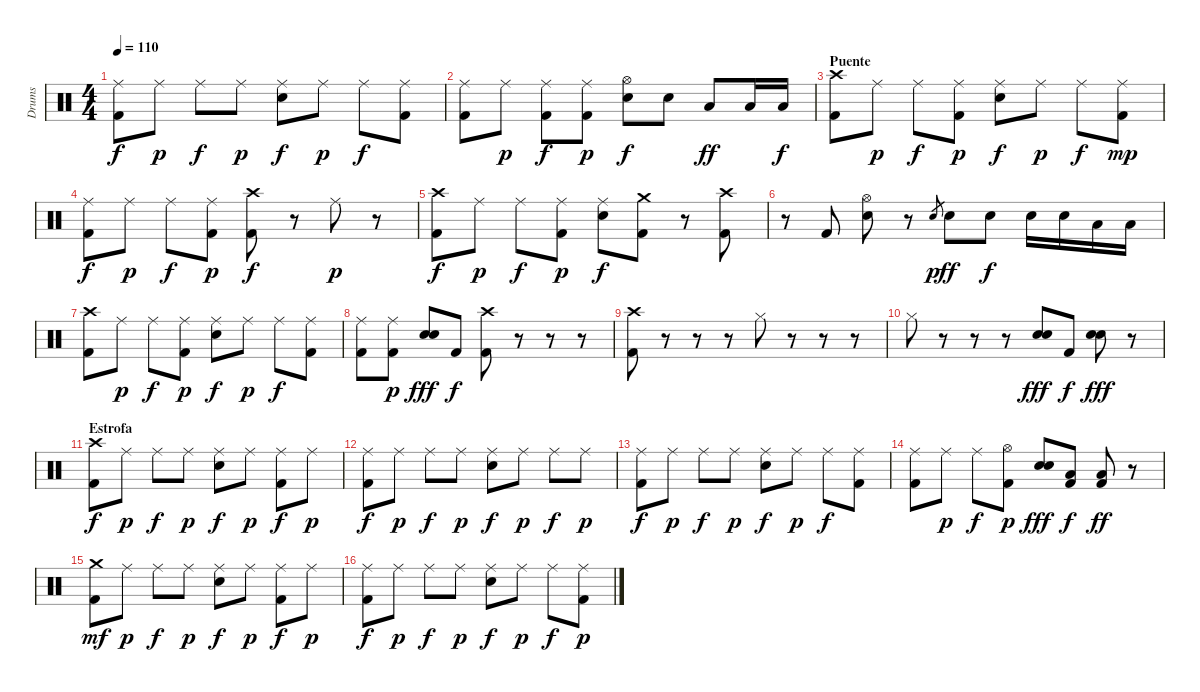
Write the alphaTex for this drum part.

\track ("Drums" "Drums") {instrument percussion}
\staff {score}
\articulation defaults
\ts (4 4)
\tempo 110
\clef neutral
\ks c
("Ride (middle)" "Kick (hit) 2").8{dy f} "Ride (middle)".8{dy p} "Ride (middle)".8{dy f} "Ride (middle)".8{dy p} ("Ride (middle)" "Snare (hit) 2").8{dy f} "Ride (middle)".8{dy p} "Ride (middle)".8{dy f} ("Ride (middle)" "Kick (hit) 2").8 |
("Ride (middle)" "Kick (hit) 2").8 "Ride (middle)".8{dy p} ("Ride (middle)" "Kick (hit) 2").8{dy f} ("Ride (middle)" "Kick (hit) 2").8{dy p} ("Hi-Hat (open)" "Snare (hit) 2").8{dy f} "Snare (hit) 2".8 "Low Floor Tom (hit)".8{dy ff} "Low Floor Tom (hit)".16 "Low Floor Tom (hit)".16{dy f} |
\section ("" "Puente")
("Crash high (hit)" "Kick (hit) 2").8 "Ride (middle)".8{dy p} "Ride (middle)".8{dy f} ("Ride (middle)" "Kick (hit) 2").8{dy p} ("Ride (middle)" "Snare (hit) 2").8{dy f} "Ride (middle)".8{dy p} "Ride (middle)".8{dy f} ("Ride (middle)" "Kick (hit) 2").8{dy mp} |
("Ride (middle)" "Kick (hit) 2").8{dy f} "Ride (middle)".8{dy p} "Ride (middle)".8{dy f} ("Ride (middle)" "Kick (hit) 2").8{dy p} ("Crash high (hit)" "Kick (hit) 2").8{dy f} r.8 "Ride (middle)".8{dy p} r.8 |
("Crash high (hit)" "Kick (hit) 2").8{dy f} "Ride (middle)".8{dy p} "Ride (middle)".8{dy f} ("Ride (middle)" "Kick (hit) 2").8{dy p} ("Ride (middle)" "Snare (hit) 2").8{dy f} ("Crash medium (hit)" "Kick (hit) 2").8 r.8 ("Crash high (hit)" "Kick (hit) 2").8 |
r.8 "Kick (hit) 2".8 ("Hi-Hat (open)" "Snare (hit) 2").8 r.8 "Snare (hit) 2".8{gr dy p} "Snare (hit) 2".8{dy ff} "Snare (hit) 2".8{dy f} "Snare (hit) 2".16 "Snare (hit) 2".16 "Low Floor Tom (hit)".16 "Low Floor Tom (hit)".16 |
("Crash high (hit)" "Kick (hit) 2").8 "Ride (middle)".8{dy p} "Ride (middle)".8{dy f} ("Ride (middle)" "Kick (hit) 2").8{dy p} ("Ride (middle)" "Snare (hit) 2").8{dy f} "Ride (middle)".8{dy p} "Ride (middle)".8{dy f} ("Ride (middle)" "Kick (hit) 2").8 |
("Ride (middle)" "Kick (hit) 2").8 ("Ride (middle)" "Kick (hit) 2").8{dy p} ("Snare (hit) 2" "Snare (hit) 2").8{bd 60 dy fff} "Kick (hit) 2".8{dy f} ("Crash high (hit)" "Kick (hit) 2").8 r.8 r.8 r.8 |
("Crash high (hit)" "Kick (hit) 2").8 r.8 r.8 r.8 "Hi-Hat (closed)".8 r.8 r.8 r.8 |
"Hi-Hat (closed)".8 r.8 r.8 r.8 ("Snare (hit) 2" "Snare (hit) 2").8{bd 60 dy fff} "Kick (hit) 2".8{dy f} ("Snare (hit) 2" "Snare (hit) 2").8{bd 60 dy fff} r.8 |
\section ("" "Estrofa")
("Crash high (hit)" "Kick (hit) 2").8{dy f} "Ride (middle)".8{dy p} "Ride (middle)".8{dy f} "Ride (middle)".8{dy p} ("Ride (middle)" "Snare (hit) 2").8{dy f} "Ride (middle)".8{dy p} ("Ride (middle)" "Kick (hit) 2").8{dy f} "Ride (middle)".8{dy p} |
("Ride (middle)" "Kick (hit) 2").8{dy f} "Ride (middle)".8{dy p} "Ride (middle)".8{dy f} "Ride (middle)".8{dy p} ("Ride (middle)" "Snare (hit) 2").8{dy f} "Ride (middle)".8{dy p} "Ride (middle)".8{dy f} "Ride (middle)".8{dy p} |
("Ride (middle)" "Kick (hit) 2").8{dy f} "Ride (middle)".8{dy p} "Ride (middle)".8{dy f} "Ride (middle)".8{dy p} ("Ride (middle)" "Snare (hit) 2").8{dy f} "Ride (middle)".8{dy p} "Ride (middle)".8{dy f} ("Ride (middle)" "Kick (hit) 2").8 |
("Ride (middle)" "Kick (hit) 2").8 "Ride (middle)".8{dy p} "Ride (middle)".8{dy f} ("Hi-Hat (open)" "Kick (hit) 2").8{dy p} ("Snare (hit) 2" "Snare (hit) 2").8{bd 60 dy fff} ("Low Floor Tom (hit)" "Kick (hit) 2").8{dy f} ("Low Floor Tom (hit)" "Kick (hit) 2").8{dy ff} r.8 |
("Crash medium (hit)" "Kick (hit) 2").8{dy mf} "Ride (middle)".8{dy p} "Ride (middle)".8{dy f} "Ride (middle)".8{dy p} ("Ride (middle)" "Snare (hit) 2").8{dy f} "Ride (middle)".8{dy p} ("Ride (middle)" "Kick (hit) 2").8{dy f} "Ride (middle)".8{dy p} |
("Ride (middle)" "Kick (hit) 2").8{dy f} "Ride (middle)".8{dy p} "Ride (middle)".8{dy f} "Ride (middle)".8{dy p} ("Ride (middle)" "Snare (hit) 2").8{dy f} "Ride (middle)".8{dy p} "Ride (middle)".8{dy f} ("Ride (middle)" "Kick (hit) 2").8{dy p}
